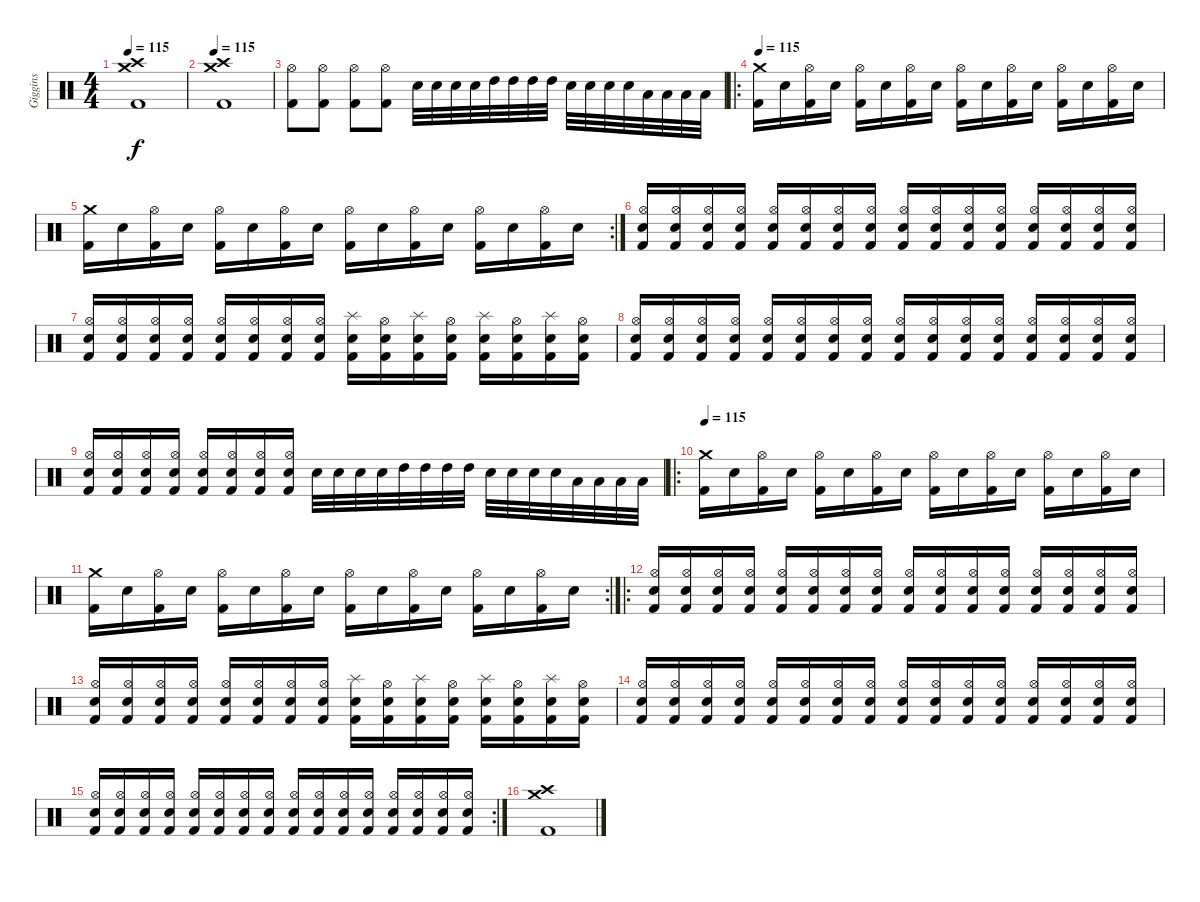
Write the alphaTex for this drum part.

\track ("Giggins" "Giggins") {instrument percussion}
\staff {score}
\articulation defaults
\ts (4 4)
\tempo 115
\clef neutral
\ks c
("Crash high (hit)" "Crash medium (hit)" "Kick (hit) 2").1{dy f} |
\tempo 115
("Crash high (hit)" "Crash medium (hit)" "Kick (hit) 2").1 |
("Hi-Hat (open)" "Kick (hit) 2").8 ("Hi-Hat (open)" "Kick (hit) 2").8 ("Hi-Hat (open)" "Kick (hit) 2").8 ("Hi-Hat (open)" "Kick (hit) 2").8 "Snare (hit) 2".32 "Snare (hit) 2".32 "Snare (hit) 2".32 "Snare (hit) 2".32 "High Tom (hit)".32 "High Tom (hit)".32 "High Tom (hit)".32 "High Tom (hit)".32 "Snare (hit) 2".32 "Snare (hit) 2".32 "Snare (hit) 2".32 "Snare (hit) 2".32 "Low Tom (hit)".32 "Low Tom (hit)".32 "Low Tom (hit)".32 "Low Tom (hit)".32 |
\ro
\tempo 115
("Crash medium (hit)" "Kick (hit) 2").16 "Snare (hit) 2".16 ("Hi-Hat (open)" "Kick (hit) 2").16 "Snare (hit) 2".16 ("Hi-Hat (open)" "Kick (hit) 2").16 "Snare (hit) 2".16 ("Hi-Hat (open)" "Kick (hit) 2").16 "Snare (hit) 2".16 ("Hi-Hat (open)" "Kick (hit) 2").16 "Snare (hit) 2".16 ("Hi-Hat (open)" "Kick (hit) 2").16 "Snare (hit) 2".16 ("Hi-Hat (open)" "Kick (hit) 2").16 "Snare (hit) 2".16 ("Hi-Hat (open)" "Kick (hit) 2").16 "Snare (hit) 2".16 |
\rc 2
("Crash medium (hit)" "Kick (hit) 2").16 "Snare (hit) 2".16 ("Hi-Hat (open)" "Kick (hit) 2").16 "Snare (hit) 2".16 ("Hi-Hat (open)" "Kick (hit) 2").16 "Snare (hit) 2".16 ("Hi-Hat (open)" "Kick (hit) 2").16 "Snare (hit) 2".16 ("Hi-Hat (open)" "Kick (hit) 2").16 "Snare (hit) 2".16 ("Hi-Hat (open)" "Kick (hit) 2").16 "Snare (hit) 2".16 ("Hi-Hat (open)" "Kick (hit) 2").16 "Snare (hit) 2".16 ("Hi-Hat (open)" "Kick (hit) 2").16 "Snare (hit) 2".16 |
("Hi-Hat (open)" "Kick (hit) 2" "Snare (hit) 2").16 ("Hi-Hat (open)" "Kick (hit) 2" "Snare (hit) 2").16 ("Hi-Hat (open)" "Kick (hit) 2" "Snare (hit) 2").16 ("Hi-Hat (open)" "Kick (hit) 2" "Snare (hit) 2").16 ("Hi-Hat (open)" "Kick (hit) 2" "Snare (hit) 2").16 ("Hi-Hat (open)" "Kick (hit) 2" "Snare (hit) 2").16 ("Hi-Hat (open)" "Kick (hit) 2" "Snare (hit) 2").16 ("Hi-Hat (open)" "Kick (hit) 2" "Snare (hit) 2").16 ("Hi-Hat (open)" "Kick (hit) 2" "Snare (hit) 2").16 ("Hi-Hat (open)" "Kick (hit) 2" "Snare (hit) 2").16 ("Hi-Hat (open)" "Kick (hit) 2" "Snare (hit) 2").16 ("Hi-Hat (open)" "Kick (hit) 2" "Snare (hit) 2").16 ("Hi-Hat (open)" "Kick (hit) 2" "Snare (hit) 2").16 ("Hi-Hat (open)" "Kick (hit) 2" "Snare (hit) 2").16 ("Hi-Hat (open)" "Kick (hit) 2" "Snare (hit) 2").16 ("Hi-Hat (open)" "Kick (hit) 2" "Snare (hit) 2").16 |
("Hi-Hat (open)" "Kick (hit) 2" "Snare (hit) 2").16 ("Hi-Hat (open)" "Kick (hit) 2" "Snare (hit) 2").16 ("Hi-Hat (open)" "Kick (hit) 2" "Snare (hit) 2").16 ("Hi-Hat (open)" "Kick (hit) 2" "Snare (hit) 2").16 ("Hi-Hat (open)" "Kick (hit) 2" "Snare (hit) 2").16 ("Hi-Hat (open)" "Kick (hit) 2" "Snare (hit) 2").16 ("Hi-Hat (open)" "Kick (hit) 2" "Snare (hit) 2").16 ("Hi-Hat (open)" "Kick (hit) 2" "Snare (hit) 2").16 ("Splash (hit)" "Kick (hit) 2" "Snare (hit) 2").16 ("Hi-Hat (open)" "Kick (hit) 2" "Snare (hit) 2").16 ("Splash (hit)" "Kick (hit) 2" "Snare (hit) 2").16 ("Hi-Hat (open)" "Kick (hit) 2" "Snare (hit) 2").16 ("Splash (hit)" "Kick (hit) 2" "Snare (hit) 2").16 ("Hi-Hat (open)" "Kick (hit) 2" "Snare (hit) 2").16 ("Splash (hit)" "Kick (hit) 2" "Snare (hit) 2").16 ("Hi-Hat (open)" "Kick (hit) 2" "Snare (hit) 2").16 |
("Hi-Hat (open)" "Kick (hit) 2" "Snare (hit) 2").16 ("Hi-Hat (open)" "Kick (hit) 2" "Snare (hit) 2").16 ("Hi-Hat (open)" "Kick (hit) 2" "Snare (hit) 2").16 ("Hi-Hat (open)" "Kick (hit) 2" "Snare (hit) 2").16 ("Hi-Hat (open)" "Kick (hit) 2" "Snare (hit) 2").16 ("Hi-Hat (open)" "Kick (hit) 2" "Snare (hit) 2").16 ("Hi-Hat (open)" "Kick (hit) 2" "Snare (hit) 2").16 ("Hi-Hat (open)" "Kick (hit) 2" "Snare (hit) 2").16 ("Hi-Hat (open)" "Kick (hit) 2" "Snare (hit) 2").16 ("Hi-Hat (open)" "Kick (hit) 2" "Snare (hit) 2").16 ("Hi-Hat (open)" "Kick (hit) 2" "Snare (hit) 2").16 ("Hi-Hat (open)" "Kick (hit) 2" "Snare (hit) 2").16 ("Hi-Hat (open)" "Kick (hit) 2" "Snare (hit) 2").16 ("Hi-Hat (open)" "Kick (hit) 2" "Snare (hit) 2").16 ("Hi-Hat (open)" "Kick (hit) 2" "Snare (hit) 2").16 ("Hi-Hat (open)" "Kick (hit) 2" "Snare (hit) 2").16 |
("Hi-Hat (open)" "Kick (hit) 2" "Snare (hit) 2").16 ("Hi-Hat (open)" "Kick (hit) 2" "Snare (hit) 2").16 ("Hi-Hat (open)" "Kick (hit) 2" "Snare (hit) 2").16 ("Hi-Hat (open)" "Kick (hit) 2" "Snare (hit) 2").16 ("Hi-Hat (open)" "Kick (hit) 2" "Snare (hit) 2").16 ("Hi-Hat (open)" "Kick (hit) 2" "Snare (hit) 2").16 ("Hi-Hat (open)" "Kick (hit) 2" "Snare (hit) 2").16 ("Hi-Hat (open)" "Kick (hit) 2" "Snare (hit) 2").16 "Snare (hit) 2".32 "Snare (hit) 2".32 "Snare (hit) 2".32 "Snare (hit) 2".32 "High Tom (hit)".32 "High Tom (hit)".32 "High Tom (hit)".32 "High Tom (hit)".32 "Snare (hit) 2".32 "Snare (hit) 2".32 "Snare (hit) 2".32 "Snare (hit) 2".32 "Low Tom (hit)".32 "Low Tom (hit)".32 "Low Tom (hit)".32 "Low Tom (hit)".32 |
\ro
\tempo 115
("Crash medium (hit)" "Kick (hit) 2").16 "Snare (hit) 2".16 ("Hi-Hat (open)" "Kick (hit) 2").16 "Snare (hit) 2".16 ("Hi-Hat (open)" "Kick (hit) 2").16 "Snare (hit) 2".16 ("Hi-Hat (open)" "Kick (hit) 2").16 "Snare (hit) 2".16 ("Hi-Hat (open)" "Kick (hit) 2").16 "Snare (hit) 2".16 ("Hi-Hat (open)" "Kick (hit) 2").16 "Snare (hit) 2".16 ("Hi-Hat (open)" "Kick (hit) 2").16 "Snare (hit) 2".16 ("Hi-Hat (open)" "Kick (hit) 2").16 "Snare (hit) 2".16 |
\rc 2
("Crash medium (hit)" "Kick (hit) 2").16 "Snare (hit) 2".16 ("Hi-Hat (open)" "Kick (hit) 2").16 "Snare (hit) 2".16 ("Hi-Hat (open)" "Kick (hit) 2").16 "Snare (hit) 2".16 ("Hi-Hat (open)" "Kick (hit) 2").16 "Snare (hit) 2".16 ("Hi-Hat (open)" "Kick (hit) 2").16 "Snare (hit) 2".16 ("Hi-Hat (open)" "Kick (hit) 2").16 "Snare (hit) 2".16 ("Hi-Hat (open)" "Kick (hit) 2").16 "Snare (hit) 2".16 ("Hi-Hat (open)" "Kick (hit) 2").16 "Snare (hit) 2".16 |
\ro
("Hi-Hat (open)" "Kick (hit) 2" "Snare (hit) 2").16 ("Hi-Hat (open)" "Kick (hit) 2" "Snare (hit) 2").16 ("Hi-Hat (open)" "Kick (hit) 2" "Snare (hit) 2").16 ("Hi-Hat (open)" "Kick (hit) 2" "Snare (hit) 2").16 ("Hi-Hat (open)" "Kick (hit) 2" "Snare (hit) 2").16 ("Hi-Hat (open)" "Kick (hit) 2" "Snare (hit) 2").16 ("Hi-Hat (open)" "Kick (hit) 2" "Snare (hit) 2").16 ("Hi-Hat (open)" "Kick (hit) 2" "Snare (hit) 2").16 ("Hi-Hat (open)" "Kick (hit) 2" "Snare (hit) 2").16 ("Hi-Hat (open)" "Kick (hit) 2" "Snare (hit) 2").16 ("Hi-Hat (open)" "Kick (hit) 2" "Snare (hit) 2").16 ("Hi-Hat (open)" "Kick (hit) 2" "Snare (hit) 2").16 ("Hi-Hat (open)" "Kick (hit) 2" "Snare (hit) 2").16 ("Hi-Hat (open)" "Kick (hit) 2" "Snare (hit) 2").16 ("Hi-Hat (open)" "Kick (hit) 2" "Snare (hit) 2").16 ("Hi-Hat (open)" "Kick (hit) 2" "Snare (hit) 2").16 |
("Hi-Hat (open)" "Kick (hit) 2" "Snare (hit) 2").16 ("Hi-Hat (open)" "Kick (hit) 2" "Snare (hit) 2").16 ("Hi-Hat (open)" "Kick (hit) 2" "Snare (hit) 2").16 ("Hi-Hat (open)" "Kick (hit) 2" "Snare (hit) 2").16 ("Hi-Hat (open)" "Kick (hit) 2" "Snare (hit) 2").16 ("Hi-Hat (open)" "Kick (hit) 2" "Snare (hit) 2").16 ("Hi-Hat (open)" "Kick (hit) 2" "Snare (hit) 2").16 ("Hi-Hat (open)" "Kick (hit) 2" "Snare (hit) 2").16 ("Splash (hit)" "Kick (hit) 2" "Snare (hit) 2").16 ("Hi-Hat (open)" "Kick (hit) 2" "Snare (hit) 2").16 ("Splash (hit)" "Kick (hit) 2" "Snare (hit) 2").16 ("Hi-Hat (open)" "Kick (hit) 2" "Snare (hit) 2").16 ("Splash (hit)" "Kick (hit) 2" "Snare (hit) 2").16 ("Hi-Hat (open)" "Kick (hit) 2" "Snare (hit) 2").16 ("Splash (hit)" "Kick (hit) 2" "Snare (hit) 2").16 ("Hi-Hat (open)" "Kick (hit) 2" "Snare (hit) 2").16 |
("Hi-Hat (open)" "Kick (hit) 2" "Snare (hit) 2").16 ("Hi-Hat (open)" "Kick (hit) 2" "Snare (hit) 2").16 ("Hi-Hat (open)" "Kick (hit) 2" "Snare (hit) 2").16 ("Hi-Hat (open)" "Kick (hit) 2" "Snare (hit) 2").16 ("Hi-Hat (open)" "Kick (hit) 2" "Snare (hit) 2").16 ("Hi-Hat (open)" "Kick (hit) 2" "Snare (hit) 2").16 ("Hi-Hat (open)" "Kick (hit) 2" "Snare (hit) 2").16 ("Hi-Hat (open)" "Kick (hit) 2" "Snare (hit) 2").16 ("Hi-Hat (open)" "Kick (hit) 2" "Snare (hit) 2").16 ("Hi-Hat (open)" "Kick (hit) 2" "Snare (hit) 2").16 ("Hi-Hat (open)" "Kick (hit) 2" "Snare (hit) 2").16 ("Hi-Hat (open)" "Kick (hit) 2" "Snare (hit) 2").16 ("Hi-Hat (open)" "Kick (hit) 2" "Snare (hit) 2").16 ("Hi-Hat (open)" "Kick (hit) 2" "Snare (hit) 2").16 ("Hi-Hat (open)" "Kick (hit) 2" "Snare (hit) 2").16 ("Hi-Hat (open)" "Kick (hit) 2" "Snare (hit) 2").16 |
\rc 2
("Hi-Hat (open)" "Kick (hit) 2" "Snare (hit) 2").16 ("Hi-Hat (open)" "Kick (hit) 2" "Snare (hit) 2").16 ("Hi-Hat (open)" "Kick (hit) 2" "Snare (hit) 2").16 ("Hi-Hat (open)" "Kick (hit) 2" "Snare (hit) 2").16 ("Hi-Hat (open)" "Kick (hit) 2" "Snare (hit) 2").16 ("Hi-Hat (open)" "Kick (hit) 2" "Snare (hit) 2").16 ("Hi-Hat (open)" "Kick (hit) 2" "Snare (hit) 2").16 ("Hi-Hat (open)" "Kick (hit) 2" "Snare (hit) 2").16 ("Hi-Hat (open)" "Kick (hit) 2" "Snare (hit) 2").16 ("Hi-Hat (open)" "Kick (hit) 2" "Snare (hit) 2").16 ("Hi-Hat (open)" "Kick (hit) 2" "Snare (hit) 2").16 ("Hi-Hat (open)" "Kick (hit) 2" "Snare (hit) 2").16 ("Hi-Hat (open)" "Kick (hit) 2" "Snare (hit) 2").16 ("Hi-Hat (open)" "Kick (hit) 2" "Snare (hit) 2").16 ("Hi-Hat (open)" "Kick (hit) 2" "Snare (hit) 2").16 ("Hi-Hat (open)" "Kick (hit) 2" "Snare (hit) 2").16 |
("Crash high (hit)" "Crash medium (hit)" "Kick (hit) 2").1
